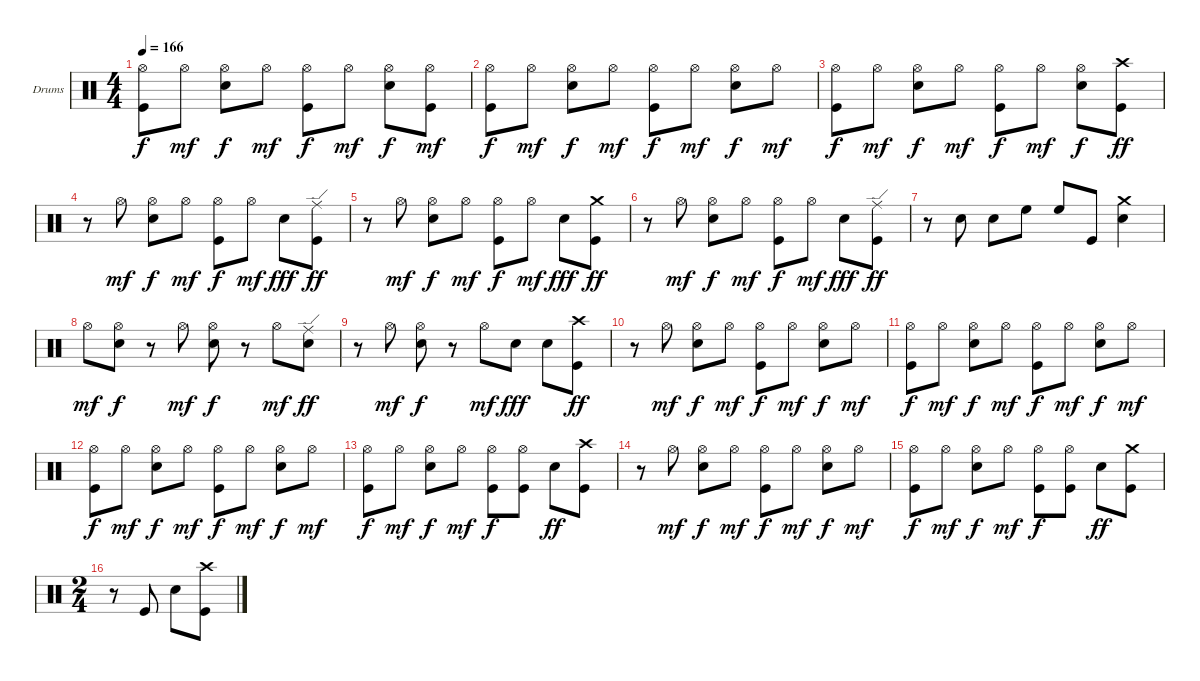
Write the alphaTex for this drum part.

\defaultSystemsLayout 4
\bracketExtendMode groupsimilarinstruments
\firstSystemTrackNameOrientation horizontal
\otherSystemsTrackNameOrientation horizontal
\track ("Lars Ulrich" "Drums") {instrument percussion}
\staff {score}
\articulation defaults
\ts (4 4)
\tempo 166
\clef neutral
\scale
0.333333
\ks c
("Hi-Hat (open)" "Kick (hit)").8{dy f} "Hi-Hat (open)".8{dy mf} ("Hi-Hat (open)" "Snare (hit) 2").8{dy f} "Hi-Hat (open)".8{dy mf} ("Hi-Hat (open)" "Kick (hit)").8{dy f} "Hi-Hat (open)".8{dy mf} ("Hi-Hat (open)" "Snare (hit) 2").8{dy f} ("Hi-Hat (open)" "Kick (hit)").8{dy mf} |
\scale
0.333333 ("Hi-Hat (open)" "Kick (hit)").8{dy f} "Hi-Hat (open)".8{dy mf} ("Hi-Hat (open)" "Snare (hit) 2").8{dy f} "Hi-Hat (open)".8{dy mf} ("Hi-Hat (open)" "Kick (hit)").8{dy f} "Hi-Hat (open)".8{dy mf} ("Hi-Hat (open)" "Snare (hit) 2").8{dy f} "Hi-Hat (open)".8{dy mf} |
\scale
0.333333 ("Hi-Hat (open)" "Kick (hit)").8{dy f} "Hi-Hat (open)".8{dy mf} ("Hi-Hat (open)" "Snare (hit) 2").8{dy f} "Hi-Hat (open)".8{dy mf} ("Hi-Hat (open)" "Kick (hit)").8{dy f} "Hi-Hat (open)".8{dy mf} ("Hi-Hat (open)" "Snare (hit) 2").8{dy f} ("Crash high (hit)" "Kick (hit)").8{dy ff} |
\scale
0.333333 r.8 "Hi-Hat (open)".8{dy mf} ("Hi-Hat (open)" "Snare (hit) 2").8{dy f} "Hi-Hat (open)".8{dy mf} ("Hi-Hat (open)" "Kick (hit)").8{dy f} "Hi-Hat (open)".8{dy mf} "Snare (hit) 2".8{dy fff} ("Ride (edge)" "Kick (hit)").8{dy ff} |
\scale
0.333333 r.8 "Hi-Hat (open)".8{dy mf} ("Hi-Hat (open)" "Snare (hit) 2").8{dy f} "Hi-Hat (open)".8{dy mf} ("Hi-Hat (open)" "Kick (hit)").8{dy f} "Hi-Hat (open)".8{dy mf} "Snare (hit) 2".8{dy fff} ("Crash medium (hit)" "Kick (hit)").8{dy ff} |
\scale
0.333333 r.8 "Hi-Hat (open)".8{dy mf} ("Hi-Hat (open)" "Snare (hit) 2").8{dy f} "Hi-Hat (open)".8{dy mf} ("Hi-Hat (open)" "Kick (hit)").8{dy f} "Hi-Hat (open)".8{dy mf} "Snare (hit) 2".8{dy fff} ("Ride (edge)" "Kick (hit)").8{dy ff} |
\scale
0.333333 r.8 "Snare (hit) 2".8 "Snare (hit) 2".8 "High Floor Tom (hit)".8 "High Floor Tom (hit)".8 "Kick (hit)".8 ("Crash medium (hit)" "Snare (hit) 2").4 |
\scale
0.333333 "Hi-Hat (open)".8{dy mf} ("Hi-Hat (open)" "Snare (hit) 2").8{dy f} r.8 "Hi-Hat (open)".8{dy mf} ("Hi-Hat (open)" "Snare (hit) 2").8{dy f} r.8 "Hi-Hat (open)".8{dy mf} ("Ride (edge)" "Snare (hit) 2").8{dy ff} |
\scale
0.333333 r.8 "Hi-Hat (open)".8{dy mf} ("Hi-Hat (open)" "Snare (hit) 2").8{dy f} r.8 "Hi-Hat (open)".8{dy mf} "Snare (hit) 2".8{dy fff} "Snare (hit) 2".8 ("Crash high (hit)" "Kick (hit)").8{dy ff} |
\scale
0.333333 r.8 "Hi-Hat (open)".8{dy mf} ("Hi-Hat (open)" "Snare (hit) 2").8{dy f} "Hi-Hat (open)".8{dy mf} ("Hi-Hat (open)" "Kick (hit)").8{dy f} "Hi-Hat (open)".8{dy mf} ("Hi-Hat (open)" "Snare (hit) 2").8{dy f} "Hi-Hat (open)".8{dy mf} |
\scale
0.333333 ("Hi-Hat (open)" "Kick (hit)").8{dy f} "Hi-Hat (open)".8{dy mf} ("Hi-Hat (open)" "Snare (hit) 2").8{dy f} "Hi-Hat (open)".8{dy mf} ("Hi-Hat (open)" "Kick (hit)").8{dy f} "Hi-Hat (open)".8{dy mf} ("Hi-Hat (open)" "Snare (hit) 2").8{dy f} "Hi-Hat (open)".8{dy mf} |
\scale
0.333333 ("Hi-Hat (open)" "Kick (hit)").8{dy f} "Hi-Hat (open)".8{dy mf} ("Hi-Hat (open)" "Snare (hit) 2").8{dy f} "Hi-Hat (open)".8{dy mf} ("Hi-Hat (open)" "Kick (hit)").8{dy f} "Hi-Hat (open)".8{dy mf} ("Hi-Hat (open)" "Snare (hit) 2").8{dy f} "Hi-Hat (open)".8{dy mf} |
\scale
0.333333 ("Hi-Hat (open)" "Kick (hit)").8{dy f} "Hi-Hat (open)".8{dy mf} ("Hi-Hat (open)" "Snare (hit) 2").8{dy f} "Hi-Hat (open)".8{dy mf} ("Hi-Hat (open)" "Kick (hit)").8{dy f} ("Hi-Hat (open)" "Kick (hit)").8 "Snare (hit) 2".8{dy ff} ("Crash high (hit)" "Kick (hit)").8 |
\scale
0.333333 r.8 "Hi-Hat (open)".8{dy mf} ("Hi-Hat (open)" "Snare (hit) 2").8{dy f} "Hi-Hat (open)".8{dy mf} ("Hi-Hat (open)" "Kick (hit)").8{dy f} "Hi-Hat (open)".8{dy mf} ("Hi-Hat (open)" "Snare (hit) 2").8{dy f} "Hi-Hat (open)".8{dy mf} |
\scale
0.333333 ("Hi-Hat (open)" "Kick (hit)").8{dy f} "Hi-Hat (open)".8{dy mf} ("Hi-Hat (open)" "Snare (hit) 2").8{dy f} "Hi-Hat (open)".8{dy mf} ("Hi-Hat (open)" "Kick (hit)").8{dy f} ("Hi-Hat (open)" "Kick (hit)").8 "Snare (hit) 2".8{dy ff} ("Crash medium (hit)" "Kick (hit)").8 |
\ts (2 4)
\scale
0.391473 r.8 "Kick (hit)".8 "Snare (hit) 2".8 ("Crash high (hit)" "Kick (hit)").8
